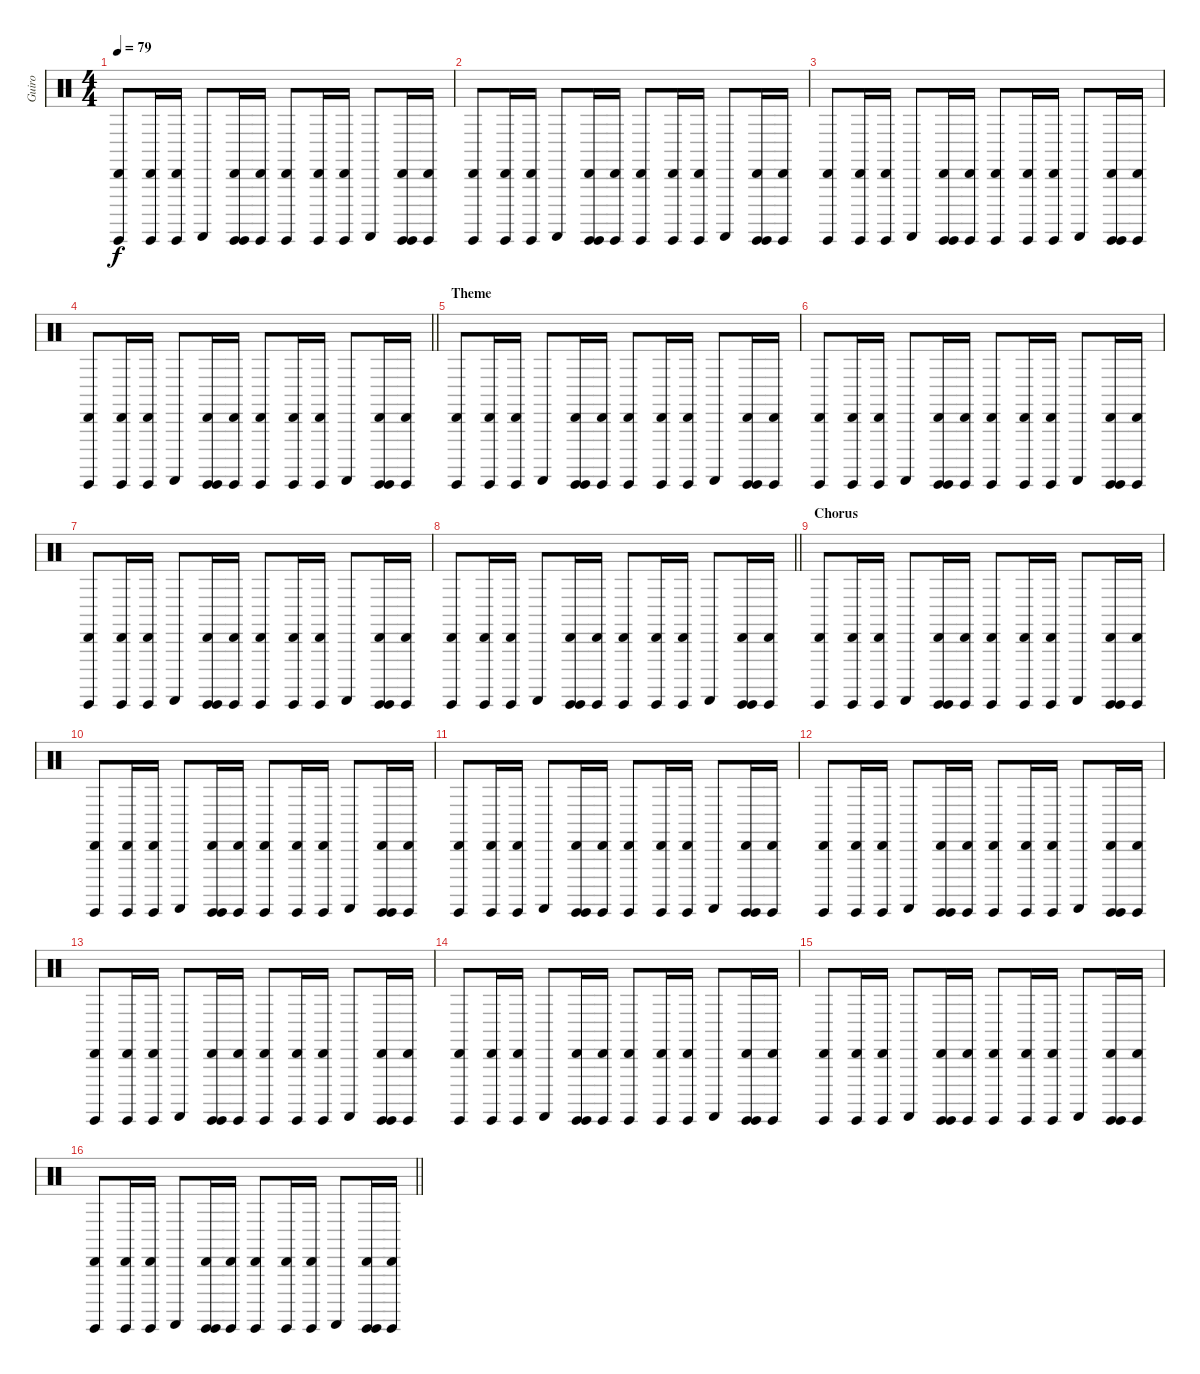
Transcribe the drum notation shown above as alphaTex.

\track ("Guiro" "Guiro") {instrument percussion}
\staff {score}
\articulation defaults
\ts (4 4)
\tempo 79
\clef neutral
\ks c
("Guiro (hit)" "Cabasa (hit)").8{dy f} ("Guiro (hit)" "Cabasa (hit)").16 ("Guiro (hit)" "Cabasa (hit)").16 "Guiro (scrap-return)".8 ("Guiro (hit)" "Guiro (hit)" "Cabasa (hit)").16 ("Guiro (hit)" "Cabasa (hit)").16 ("Guiro (hit)" "Cabasa (hit)").8 ("Guiro (hit)" "Cabasa (hit)").16 ("Guiro (hit)" "Cabasa (hit)").16 "Guiro (scrap-return)".8 ("Guiro (hit)" "Guiro (hit)" "Cabasa (hit)").16 ("Guiro (hit)" "Cabasa (hit)").16 |
("Guiro (hit)" "Cabasa (hit)").8 ("Guiro (hit)" "Cabasa (hit)").16 ("Guiro (hit)" "Cabasa (hit)").16 "Guiro (scrap-return)".8 ("Guiro (hit)" "Guiro (hit)" "Cabasa (hit)").16 ("Guiro (hit)" "Cabasa (hit)").16 ("Guiro (hit)" "Cabasa (hit)").8 ("Guiro (hit)" "Cabasa (hit)").16 ("Guiro (hit)" "Cabasa (hit)").16 "Guiro (scrap-return)".8 ("Guiro (hit)" "Guiro (hit)" "Cabasa (hit)").16 ("Guiro (hit)" "Cabasa (hit)").16 |
("Guiro (hit)" "Cabasa (hit)").8 ("Guiro (hit)" "Cabasa (hit)").16 ("Guiro (hit)" "Cabasa (hit)").16 "Guiro (scrap-return)".8 ("Guiro (hit)" "Guiro (hit)" "Cabasa (hit)").16 ("Guiro (hit)" "Cabasa (hit)").16 ("Guiro (hit)" "Cabasa (hit)").8 ("Guiro (hit)" "Cabasa (hit)").16 ("Guiro (hit)" "Cabasa (hit)").16 "Guiro (scrap-return)".8 ("Guiro (hit)" "Guiro (hit)" "Cabasa (hit)").16 ("Guiro (hit)" "Cabasa (hit)").16 |
\barLineRight lightlight
("Guiro (hit)" "Cabasa (hit)").8 ("Guiro (hit)" "Cabasa (hit)").16 ("Guiro (hit)" "Cabasa (hit)").16 "Guiro (scrap-return)".8 ("Guiro (hit)" "Guiro (hit)" "Cabasa (hit)").16 ("Guiro (hit)" "Cabasa (hit)").16 ("Guiro (hit)" "Cabasa (hit)").8 ("Guiro (hit)" "Cabasa (hit)").16 ("Guiro (hit)" "Cabasa (hit)").16 "Guiro (scrap-return)".8 ("Guiro (hit)" "Guiro (hit)" "Cabasa (hit)").16 ("Guiro (hit)" "Cabasa (hit)").16 |
\section ("" "Theme")
("Guiro (hit)" "Cabasa (hit)").8 ("Guiro (hit)" "Cabasa (hit)").16 ("Guiro (hit)" "Cabasa (hit)").16 "Guiro (scrap-return)".8 ("Guiro (hit)" "Guiro (hit)" "Cabasa (hit)").16 ("Guiro (hit)" "Cabasa (hit)").16 ("Guiro (hit)" "Cabasa (hit)").8 ("Guiro (hit)" "Cabasa (hit)").16 ("Guiro (hit)" "Cabasa (hit)").16 "Guiro (scrap-return)".8 ("Guiro (hit)" "Guiro (hit)" "Cabasa (hit)").16 ("Guiro (hit)" "Cabasa (hit)").16 |
("Guiro (hit)" "Cabasa (hit)").8 ("Guiro (hit)" "Cabasa (hit)").16 ("Guiro (hit)" "Cabasa (hit)").16 "Guiro (scrap-return)".8 ("Guiro (hit)" "Guiro (hit)" "Cabasa (hit)").16 ("Guiro (hit)" "Cabasa (hit)").16 ("Guiro (hit)" "Cabasa (hit)").8 ("Guiro (hit)" "Cabasa (hit)").16 ("Guiro (hit)" "Cabasa (hit)").16 "Guiro (scrap-return)".8 ("Guiro (hit)" "Guiro (hit)" "Cabasa (hit)").16 ("Guiro (hit)" "Cabasa (hit)").16 |
("Guiro (hit)" "Cabasa (hit)").8 ("Guiro (hit)" "Cabasa (hit)").16 ("Guiro (hit)" "Cabasa (hit)").16 "Guiro (scrap-return)".8 ("Guiro (hit)" "Guiro (hit)" "Cabasa (hit)").16 ("Guiro (hit)" "Cabasa (hit)").16 ("Guiro (hit)" "Cabasa (hit)").8 ("Guiro (hit)" "Cabasa (hit)").16 ("Guiro (hit)" "Cabasa (hit)").16 "Guiro (scrap-return)".8 ("Guiro (hit)" "Guiro (hit)" "Cabasa (hit)").16 ("Guiro (hit)" "Cabasa (hit)").16 |
\barLineRight lightlight
("Guiro (hit)" "Cabasa (hit)").8 ("Guiro (hit)" "Cabasa (hit)").16 ("Guiro (hit)" "Cabasa (hit)").16 "Guiro (scrap-return)".8 ("Guiro (hit)" "Guiro (hit)" "Cabasa (hit)").16 ("Guiro (hit)" "Cabasa (hit)").16 ("Guiro (hit)" "Cabasa (hit)").8 ("Guiro (hit)" "Cabasa (hit)").16 ("Guiro (hit)" "Cabasa (hit)").16 "Guiro (scrap-return)".8 ("Guiro (hit)" "Guiro (hit)" "Cabasa (hit)").16 ("Guiro (hit)" "Cabasa (hit)").16 |
\section ("" "Chorus")
("Guiro (hit)" "Cabasa (hit)").8 ("Guiro (hit)" "Cabasa (hit)").16 ("Guiro (hit)" "Cabasa (hit)").16 "Guiro (scrap-return)".8 ("Guiro (hit)" "Guiro (hit)" "Cabasa (hit)").16 ("Guiro (hit)" "Cabasa (hit)").16 ("Guiro (hit)" "Cabasa (hit)").8 ("Guiro (hit)" "Cabasa (hit)").16 ("Guiro (hit)" "Cabasa (hit)").16 "Guiro (scrap-return)".8 ("Guiro (hit)" "Guiro (hit)" "Cabasa (hit)").16 ("Guiro (hit)" "Cabasa (hit)").16 |
("Guiro (hit)" "Cabasa (hit)").8 ("Guiro (hit)" "Cabasa (hit)").16 ("Guiro (hit)" "Cabasa (hit)").16 "Guiro (scrap-return)".8 ("Guiro (hit)" "Guiro (hit)" "Cabasa (hit)").16 ("Guiro (hit)" "Cabasa (hit)").16 ("Guiro (hit)" "Cabasa (hit)").8 ("Guiro (hit)" "Cabasa (hit)").16 ("Guiro (hit)" "Cabasa (hit)").16 "Guiro (scrap-return)".8 ("Guiro (hit)" "Guiro (hit)" "Cabasa (hit)").16 ("Guiro (hit)" "Cabasa (hit)").16 |
("Guiro (hit)" "Cabasa (hit)").8 ("Guiro (hit)" "Cabasa (hit)").16 ("Guiro (hit)" "Cabasa (hit)").16 "Guiro (scrap-return)".8 ("Guiro (hit)" "Guiro (hit)" "Cabasa (hit)").16 ("Guiro (hit)" "Cabasa (hit)").16 ("Guiro (hit)" "Cabasa (hit)").8 ("Guiro (hit)" "Cabasa (hit)").16 ("Guiro (hit)" "Cabasa (hit)").16 "Guiro (scrap-return)".8 ("Guiro (hit)" "Guiro (hit)" "Cabasa (hit)").16 ("Guiro (hit)" "Cabasa (hit)").16 |
("Guiro (hit)" "Cabasa (hit)").8 ("Guiro (hit)" "Cabasa (hit)").16 ("Guiro (hit)" "Cabasa (hit)").16 "Guiro (scrap-return)".8 ("Guiro (hit)" "Guiro (hit)" "Cabasa (hit)").16 ("Guiro (hit)" "Cabasa (hit)").16 ("Guiro (hit)" "Cabasa (hit)").8 ("Guiro (hit)" "Cabasa (hit)").16 ("Guiro (hit)" "Cabasa (hit)").16 "Guiro (scrap-return)".8 ("Guiro (hit)" "Guiro (hit)" "Cabasa (hit)").16 ("Guiro (hit)" "Cabasa (hit)").16 |
("Guiro (hit)" "Cabasa (hit)").8 ("Guiro (hit)" "Cabasa (hit)").16 ("Guiro (hit)" "Cabasa (hit)").16 "Guiro (scrap-return)".8 ("Guiro (hit)" "Guiro (hit)" "Cabasa (hit)").16 ("Guiro (hit)" "Cabasa (hit)").16 ("Guiro (hit)" "Cabasa (hit)").8 ("Guiro (hit)" "Cabasa (hit)").16 ("Guiro (hit)" "Cabasa (hit)").16 "Guiro (scrap-return)".8 ("Guiro (hit)" "Guiro (hit)" "Cabasa (hit)").16 ("Guiro (hit)" "Cabasa (hit)").16 |
("Guiro (hit)" "Cabasa (hit)").8 ("Guiro (hit)" "Cabasa (hit)").16 ("Guiro (hit)" "Cabasa (hit)").16 "Guiro (scrap-return)".8 ("Guiro (hit)" "Guiro (hit)" "Cabasa (hit)").16 ("Guiro (hit)" "Cabasa (hit)").16 ("Guiro (hit)" "Cabasa (hit)").8 ("Guiro (hit)" "Cabasa (hit)").16 ("Guiro (hit)" "Cabasa (hit)").16 "Guiro (scrap-return)".8 ("Guiro (hit)" "Guiro (hit)" "Cabasa (hit)").16 ("Guiro (hit)" "Cabasa (hit)").16 |
("Guiro (hit)" "Cabasa (hit)").8 ("Guiro (hit)" "Cabasa (hit)").16 ("Guiro (hit)" "Cabasa (hit)").16 "Guiro (scrap-return)".8 ("Guiro (hit)" "Guiro (hit)" "Cabasa (hit)").16 ("Guiro (hit)" "Cabasa (hit)").16 ("Guiro (hit)" "Cabasa (hit)").8 ("Guiro (hit)" "Cabasa (hit)").16 ("Guiro (hit)" "Cabasa (hit)").16 "Guiro (scrap-return)".8 ("Guiro (hit)" "Guiro (hit)" "Cabasa (hit)").16 ("Guiro (hit)" "Cabasa (hit)").16 |
\barLineRight lightlight
("Guiro (hit)" "Cabasa (hit)").8 ("Guiro (hit)" "Cabasa (hit)").16 ("Guiro (hit)" "Cabasa (hit)").16 "Guiro (scrap-return)".8 ("Guiro (hit)" "Guiro (hit)" "Cabasa (hit)").16 ("Guiro (hit)" "Cabasa (hit)").16 ("Guiro (hit)" "Cabasa (hit)").8 ("Guiro (hit)" "Cabasa (hit)").16 ("Guiro (hit)" "Cabasa (hit)").16 "Guiro (scrap-return)".8 ("Guiro (hit)" "Guiro (hit)" "Cabasa (hit)").16 ("Guiro (hit)" "Cabasa (hit)").16
